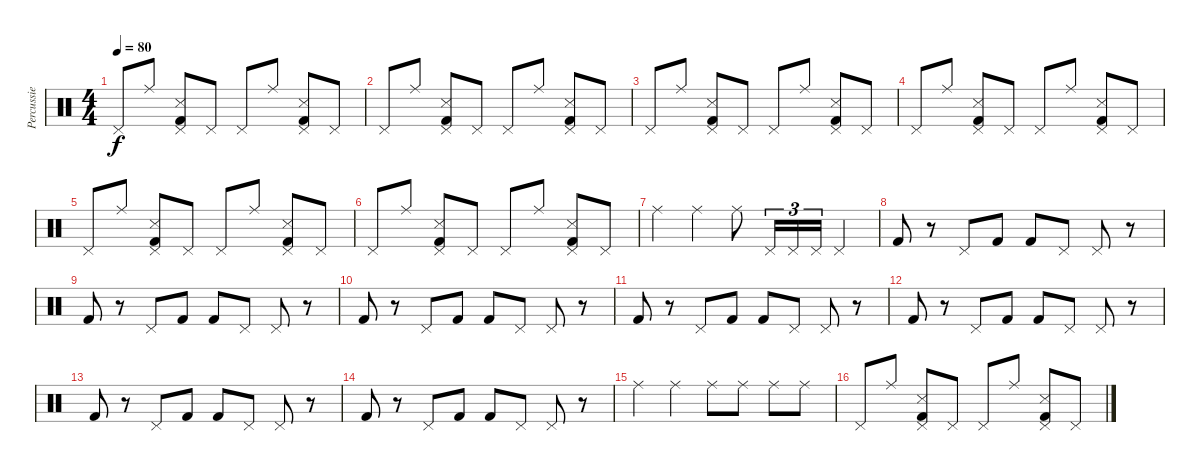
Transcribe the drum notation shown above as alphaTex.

\track ("Percussie" "Percussie") {instrument percussion}
\staff {score}
\articulation defaults
\ts (4 4)
\tempo 80
\clef neutral
\ks c "Pedal Hi-Hat (hit)".8{dy f} "Ride (middle)".8
("Snare (side stick) 3" "Kick (hit) 2" "Pedal Hi-Hat (hit)").8 "Pedal Hi-Hat (hit)".8 "Pedal Hi-Hat (hit)".8 "Ride (middle)".8 ("Snare (side stick) 3" "Kick (hit) 2" "Pedal Hi-Hat (hit)").8 "Pedal Hi-Hat (hit)".8 |
"Pedal Hi-Hat (hit)".8 "Ride (middle)".8 ("Snare (side stick) 3" "Kick (hit) 2" "Pedal Hi-Hat (hit)").8 "Pedal Hi-Hat (hit)".8 "Pedal Hi-Hat (hit)".8 "Ride (middle)".8 ("Snare (side stick) 3" "Kick (hit) 2" "Pedal Hi-Hat (hit)").8 "Pedal Hi-Hat (hit)".8 |
"Pedal Hi-Hat (hit)".8 "Ride (middle)".8 ("Snare (side stick) 3" "Kick (hit) 2" "Pedal Hi-Hat (hit)").8 "Pedal Hi-Hat (hit)".8 "Pedal Hi-Hat (hit)".8 "Ride (middle)".8 ("Snare (side stick) 3" "Kick (hit) 2" "Pedal Hi-Hat (hit)").8 "Pedal Hi-Hat (hit)".8 |
"Pedal Hi-Hat (hit)".8 "Ride (middle)".8 ("Snare (side stick) 3" "Kick (hit) 2" "Pedal Hi-Hat (hit)").8 "Pedal Hi-Hat (hit)".8 "Pedal Hi-Hat (hit)".8 "Ride (middle)".8 ("Snare (side stick) 3" "Kick (hit) 2" "Pedal Hi-Hat (hit)").8 "Pedal Hi-Hat (hit)".8 |
"Pedal Hi-Hat (hit)".8 "Ride (middle)".8 ("Snare (side stick) 3" "Kick (hit) 2" "Pedal Hi-Hat (hit)").8 "Pedal Hi-Hat (hit)".8 "Pedal Hi-Hat (hit)".8 "Ride (middle)".8 ("Snare (side stick) 3" "Kick (hit) 2" "Pedal Hi-Hat (hit)").8 "Pedal Hi-Hat (hit)".8 |
"Pedal Hi-Hat (hit)".8 "Ride (middle)".8 ("Snare (side stick) 3" "Kick (hit) 2" "Pedal Hi-Hat (hit)").8 "Pedal Hi-Hat (hit)".8 "Pedal Hi-Hat (hit)".8 "Ride (middle)".8 ("Snare (side stick) 3" "Kick (hit) 2" "Pedal Hi-Hat (hit)").8 "Pedal Hi-Hat (hit)".8 |
"Ride (middle)".4 "Ride (middle)".4 "Ride (middle)".8 "Pedal Hi-Hat (hit)".16{tu (3 2)} "Pedal Hi-Hat (hit)".16{tu (3 2)} "Pedal Hi-Hat (hit)".16{tu (3 2)} "Pedal Hi-Hat (hit)".4 |
"Kick (hit) 2".8 r.8 "Pedal Hi-Hat (hit)".8 "Kick (hit) 2".8 "Kick (hit) 2".8 "Pedal Hi-Hat (hit)".8 "Pedal Hi-Hat (hit)".8 r.8 |
"Kick (hit) 2".8 r.8 "Pedal Hi-Hat (hit)".8 "Kick (hit) 2".8 "Kick (hit) 2".8 "Pedal Hi-Hat (hit)".8 "Pedal Hi-Hat (hit)".8 r.8 |
"Kick (hit) 2".8 r.8 "Pedal Hi-Hat (hit)".8 "Kick (hit) 2".8 "Kick (hit) 2".8 "Pedal Hi-Hat (hit)".8 "Pedal Hi-Hat (hit)".8 r.8 |
"Kick (hit) 2".8 r.8 "Pedal Hi-Hat (hit)".8 "Kick (hit) 2".8 "Kick (hit) 2".8 "Pedal Hi-Hat (hit)".8 "Pedal Hi-Hat (hit)".8 r.8 |
"Kick (hit) 2".8 r.8 "Pedal Hi-Hat (hit)".8 "Kick (hit) 2".8 "Kick (hit) 2".8 "Pedal Hi-Hat (hit)".8 "Pedal Hi-Hat (hit)".8 r.8 |
"Kick (hit) 2".8 r.8 "Pedal Hi-Hat (hit)".8 "Kick (hit) 2".8 "Kick (hit) 2".8 "Pedal Hi-Hat (hit)".8 "Pedal Hi-Hat (hit)".8 r.8 |
"Kick (hit) 2".8 r.8 "Pedal Hi-Hat (hit)".8 "Kick (hit) 2".8 "Kick (hit) 2".8 "Pedal Hi-Hat (hit)".8 "Pedal Hi-Hat (hit)".8 r.8 |
"Ride (middle)".4 "Ride (middle)".4 "Ride (middle)".8 "Ride (middle)".8 "Ride (middle)".8 "Ride (middle)".8 |
"Pedal Hi-Hat (hit)".8 "Ride (middle)".8 ("Snare (side stick) 3" "Kick (hit) 2" "Pedal Hi-Hat (hit)").8 "Pedal Hi-Hat (hit)".8 "Pedal Hi-Hat (hit)".8 "Ride (middle)".8 ("Snare (side stick) 3" "Kick (hit) 2" "Pedal Hi-Hat (hit)").8 "Pedal Hi-Hat (hit)".8
